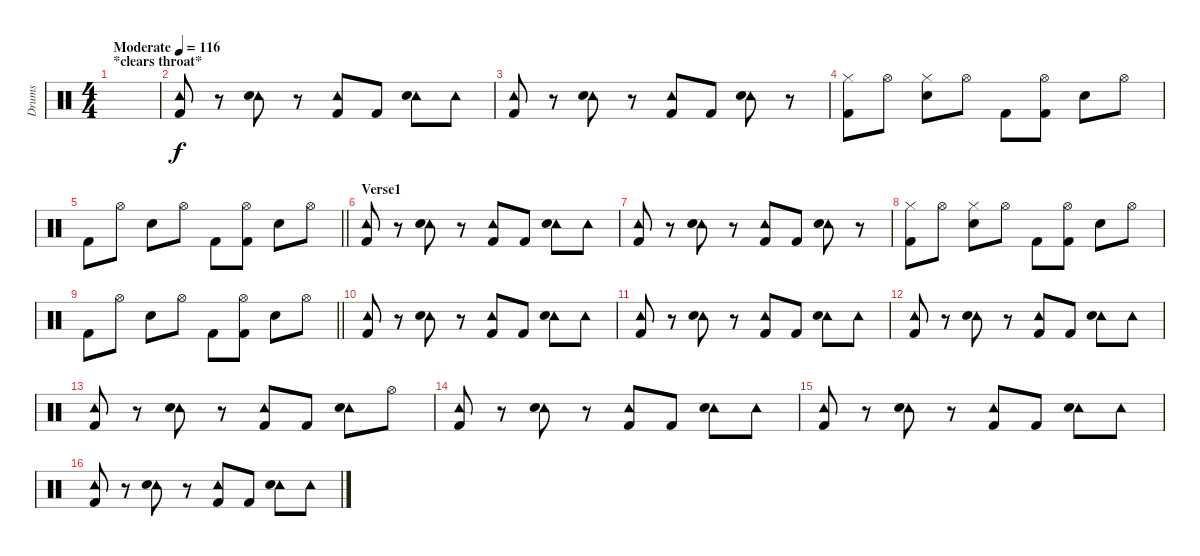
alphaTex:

\track ("Drums" "Drums") {instrument percussion}
\staff {score}
\articulation defaults
\ts (4 4)
\section ("" "*clears throat*")
\tempo (116 "Moderate")
\clef neutral
\ks c
|
("Tambourine (hit)" "Kick (hit) 2").8 r.8 ("Tambourine (hit)" "Electric Snare (hit)").8 r.8 ("Tambourine (hit)" "Kick (hit) 2").8 "Kick (hit) 2".8 ("Tambourine (hit)" "Electric Snare (hit)").8 "Tambourine (hit)".8 |
("Tambourine (hit)" "Kick (hit) 2").8 r.8 ("Tambourine (hit)" "Electric Snare (hit)").8 r.8 ("Tambourine (hit)" "Kick (hit) 2").8 "Kick (hit) 2".8 ("Tambourine (hit)" "Electric Snare (hit)").8 r.8 |
("Hi-Hat (closed)" "Kick (hit) 2").8 "Hi-Hat (open)".8 ("Hi-Hat (closed)" "Electric Snare (hit)").8 "Hi-Hat (open)".8 "Kick (hit) 2".8 ("Hi-Hat (open)" "Kick (hit) 2").8 "Electric Snare (hit)".8 "Hi-Hat (open)".8 |
\barLineRight lightlight "Kick (hit) 2".8 "Hi-Hat (open)".8 "Electric Snare (hit)".8 "Hi-Hat (open)".8 "Kick (hit) 2".8
("Hi-Hat (open)" "Kick (hit) 2").8 "Electric Snare (hit)".8 "Hi-Hat (open)".8 |
\section ("" "Verse1")
("Tambourine (hit)" "Kick (hit) 2").8 r.8 ("Tambourine (hit)" "Electric Snare (hit)").8 r.8 ("Tambourine (hit)" "Kick (hit) 2").8 "Kick (hit) 2".8 ("Tambourine (hit)" "Electric Snare (hit)").8 "Tambourine (hit)".8 |
("Tambourine (hit)" "Kick (hit) 2").8 r.8 ("Tambourine (hit)" "Electric Snare (hit)").8 r.8 ("Tambourine (hit)" "Kick (hit) 2").8 "Kick (hit) 2".8 ("Tambourine (hit)" "Electric Snare (hit)").8 r.8 |
("Hi-Hat (closed)" "Kick (hit) 2").8 "Hi-Hat (open)".8 ("Hi-Hat (closed)" "Electric Snare (hit)").8 "Hi-Hat (open)".8 "Kick (hit) 2".8 ("Hi-Hat (open)" "Kick (hit) 2").8 "Electric Snare (hit)".8 "Hi-Hat (open)".8 |
\barLineRight lightlight "Kick (hit) 2".8 "Hi-Hat (open)".8 "Electric Snare (hit)".8 "Hi-Hat (open)".8 "Kick (hit) 2".8
("Hi-Hat (open)" "Kick (hit) 2").8 "Electric Snare (hit)".8 "Hi-Hat (open)".8 |
("Tambourine (hit)" "Kick (hit) 2").8 r.8 ("Tambourine (hit)" "Electric Snare (hit)").8 r.8 ("Tambourine (hit)" "Kick (hit) 2").8 "Kick (hit) 2".8 ("Tambourine (hit)" "Electric Snare (hit)").8 "Tambourine (hit)".8 |
("Tambourine (hit)" "Kick (hit) 2").8 r.8 ("Tambourine (hit)" "Electric Snare (hit)").8 r.8 ("Tambourine (hit)" "Kick (hit) 2").8 "Kick (hit) 2".8 ("Tambourine (hit)" "Electric Snare (hit)").8 "Tambourine (hit)".8 |
("Tambourine (hit)" "Kick (hit) 2").8 r.8 ("Tambourine (hit)" "Electric Snare (hit)").8 r.8 ("Tambourine (hit)" "Kick (hit) 2").8 "Kick (hit) 2".8 ("Tambourine (hit)" "Electric Snare (hit)").8 "Tambourine (hit)".8 |
("Tambourine (hit)" "Kick (hit) 2").8 r.8 ("Tambourine (hit)" "Electric Snare (hit)").8 r.8 ("Tambourine (hit)" "Kick (hit) 2").8 "Kick (hit) 2".8 ("Tambourine (hit)" "Electric Snare (hit)").8 "Hi-Hat (open)".8 |
("Tambourine (hit)" "Kick (hit) 2").8 r.8 ("Tambourine (hit)" "Electric Snare (hit)").8 r.8 ("Tambourine (hit)" "Kick (hit) 2").8 "Kick (hit) 2".8 ("Tambourine (hit)" "Electric Snare (hit)").8 "Tambourine (hit)".8 |
("Tambourine (hit)" "Kick (hit) 2").8 r.8 ("Tambourine (hit)" "Electric Snare (hit)").8 r.8 ("Tambourine (hit)" "Kick (hit) 2").8 "Kick (hit) 2".8 ("Tambourine (hit)" "Electric Snare (hit)").8 "Tambourine (hit)".8 |
("Tambourine (hit)" "Kick (hit) 2").8 r.8 ("Tambourine (hit)" "Electric Snare (hit)").8 r.8 ("Tambourine (hit)" "Kick (hit) 2").8 "Kick (hit) 2".8 ("Tambourine (hit)" "Electric Snare (hit)").8 "Tambourine (hit)".8
